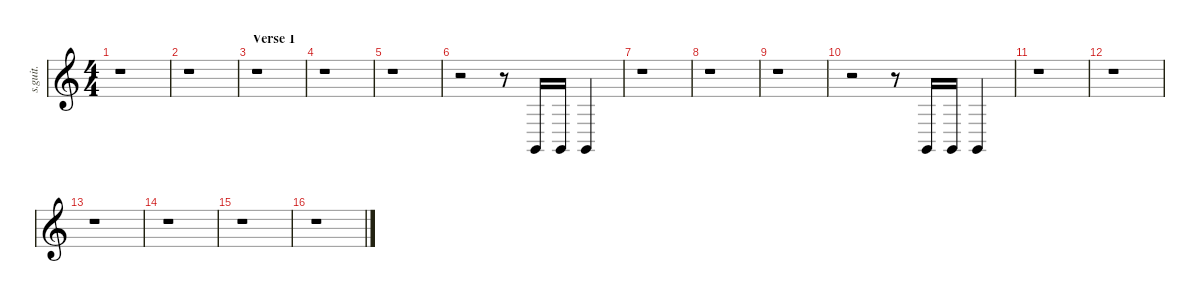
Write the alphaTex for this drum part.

\defaultSystemsLayout 4
\hideDynamics
\bracketExtendMode nobrackets
\track ("Mariachi Band | Percussion" "s.guit.") {instrument percussion}
\staff {score}
\articulation defaults
\ts (4 4)
\tempo (173 hide)
\clef g2
\ks c
r.1{dy f} |
r.1 |
\section ("" "Verse 1")
r.1 |
r.1 |
r.1 |
r.2 r.8 "Claves (hit)".16{lyrics (0 "") lyrics (1 "") lyrics (2 "") lyrics (3 "") lyrics (4 "")} "Claves (hit)".16{lyrics (0 "") lyrics (1 "") lyrics (2 "") lyrics (3 "") lyrics (4 "")} "Claves (hit)".4{lyrics (0 "") lyrics (1 "") lyrics (2 "") lyrics (3 "") lyrics (4 "")} |
r.1 |
r.1 |
r.1 |
r.2 r.8 "Claves (hit)".16{lyrics (0 "") lyrics (1 "") lyrics (2 "") lyrics (3 "") lyrics (4 "")} "Claves (hit)".16{lyrics (0 "") lyrics (1 "") lyrics (2 "") lyrics (3 "") lyrics (4 "")} "Claves (hit)".4{lyrics (0 "") lyrics (1 "") lyrics (2 "") lyrics (3 "") lyrics (4 "")} |
r.1 |
r.1 |
r.1 |
r.1 |
r.1 |
r.1
